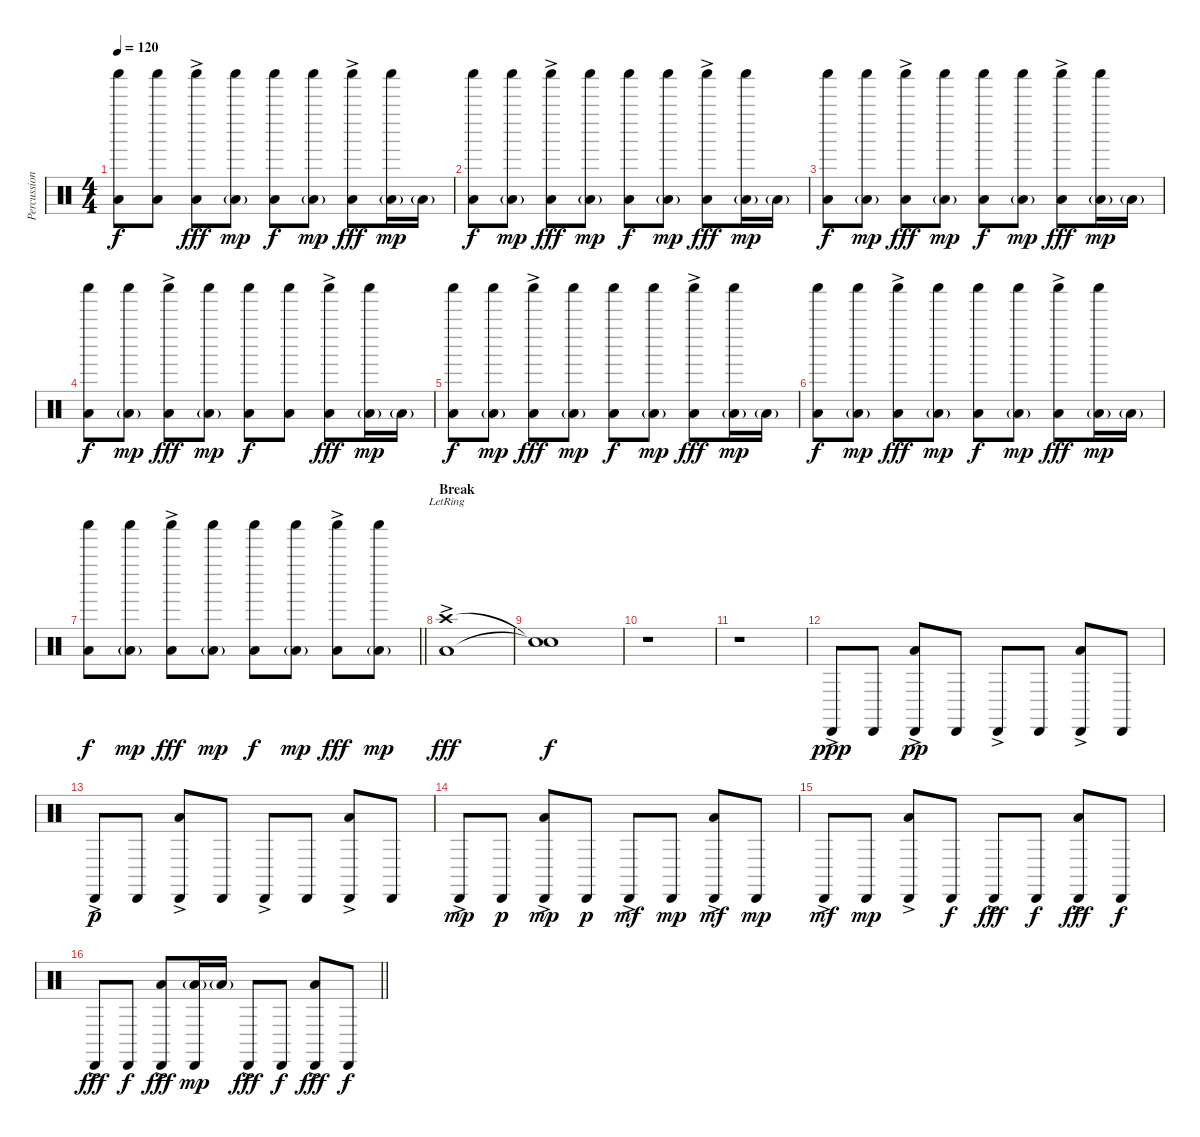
\track ("Percussion" "Percussion") {instrument percussion}
\staff {score}
\articulation defaults
\ts (4 4)
\tempo 120
\clef neutral
\ks c
("Shaker (hit)" "Low Tom (hit)").8{dy f} ("Shaker (hit)" "Low Tom (hit)").8 ("Shaker (hit)" "Low Tom (hit)"{ac}).8{dy fff} ("Shaker (hit)" "Low Tom (hit)"{g}).8{dy mp} ("Shaker (hit)" "Low Tom (hit)").8{dy f} ("Shaker (hit)" "Low Tom (hit)"{g}).8{dy mp} ("Shaker (hit)" "Low Tom (hit)"{ac}).8{dy fff} ("Shaker (hit)" "Low Tom (hit)"{g}).16{dy mp} "Low Tom (hit)"{g}.16 |
("Shaker (hit)" "Low Tom (hit)").8{dy f} ("Shaker (hit)" "Low Tom (hit)"{g}).8{dy mp} ("Shaker (hit)" "Low Tom (hit)"{ac}).8{dy fff} ("Shaker (hit)" "Low Tom (hit)"{g}).8{dy mp} ("Shaker (hit)" "Low Tom (hit)").8{dy f} ("Shaker (hit)" "Low Tom (hit)"{g}).8{dy mp} ("Shaker (hit)" "Low Tom (hit)"{ac}).8{dy fff} ("Shaker (hit)" "Low Tom (hit)"{g}).16{dy mp} "Low Tom (hit)"{g}.16 |
("Shaker (hit)" "Low Tom (hit)").8{dy f} ("Shaker (hit)" "Low Tom (hit)"{g}).8{dy mp} ("Shaker (hit)" "Low Tom (hit)"{ac}).8{dy fff} ("Shaker (hit)" "Low Tom (hit)"{g}).8{dy mp} ("Shaker (hit)" "Low Tom (hit)").8{dy f} ("Shaker (hit)" "Low Tom (hit)"{g}).8{dy mp} ("Shaker (hit)" "Low Tom (hit)"{ac}).8{dy fff} ("Shaker (hit)" "Low Tom (hit)"{g}).16{dy mp} "Low Tom (hit)"{g}.16 |
("Shaker (hit)" "Low Tom (hit)").8{dy f} ("Shaker (hit)" "Low Tom (hit)"{g}).8{dy mp} ("Shaker (hit)" "Low Tom (hit)"{ac}).8{dy fff} ("Shaker (hit)" "Low Tom (hit)"{g}).8{dy mp} ("Shaker (hit)" "Low Tom (hit)").8{dy f} ("Shaker (hit)" "Low Tom (hit)").8 ("Shaker (hit)" "Low Tom (hit)"{ac}).8{dy fff} ("Shaker (hit)" "Low Tom (hit)"{g}).16{dy mp} "Low Tom (hit)"{g}.16 |
("Shaker (hit)" "Low Tom (hit)").8{dy f} ("Shaker (hit)" "Low Tom (hit)"{g}).8{dy mp} ("Shaker (hit)" "Low Tom (hit)"{ac}).8{dy fff} ("Shaker (hit)" "Low Tom (hit)"{g}).8{dy mp} ("Shaker (hit)" "Low Tom (hit)").8{dy f} ("Shaker (hit)" "Low Tom (hit)"{g}).8{dy mp} ("Shaker (hit)" "Low Tom (hit)"{ac}).8{dy fff} ("Shaker (hit)" "Low Tom (hit)"{g}).16{dy mp} "Low Tom (hit)"{g}.16 |
("Shaker (hit)" "Low Tom (hit)").8{dy f} ("Shaker (hit)" "Low Tom (hit)"{g}).8{dy mp} ("Shaker (hit)" "Low Tom (hit)"{ac}).8{dy fff} ("Shaker (hit)" "Low Tom (hit)"{g}).8{dy mp} ("Shaker (hit)" "Low Tom (hit)").8{dy f} ("Shaker (hit)" "Low Tom (hit)"{g}).8{dy mp} ("Shaker (hit)" "Low Tom (hit)"{ac}).8{dy fff} ("Shaker (hit)" "Low Tom (hit)"{g}).16{dy mp} "Low Tom (hit)"{g}.16 |
\barLineRight lightlight
("Shaker (hit)" "Low Tom (hit)").8{dy f} ("Shaker (hit)" "Low Tom (hit)"{g}).8{dy mp} ("Shaker (hit)" "Low Tom (hit)"{ac}).8{dy fff} ("Shaker (hit)" "Low Tom (hit)"{g}).8{dy mp} ("Shaker (hit)" "Low Tom (hit)").8{dy f} ("Shaker (hit)" "Low Tom (hit)"{g}).8{dy mp} ("Shaker (hit)" "Low Tom (hit)"{ac}).8{dy fff} ("Shaker (hit)" "Low Tom (hit)"{g}).8{dy mp} |
\section ("" "Break")
("Crash high (hit)"{ac lr} "Low Tom (hit)").1{dy fff} |
("Snare (hit)"{t} "Snare (hit)"{t}).1{dy f} |
r.1 |
r.1 |
"Cabasa (hit)"{ac}.8{dy ppp} "Cabasa (hit)".8 ("Cabasa (hit)"{ac} "Low Tom (hit)").8{dy pp} "Cabasa (hit)".8 "Cabasa (hit)"{ac}.8 "Cabasa (hit)".8 ("Cabasa (hit)"{ac} "Low Tom (hit)").8 "Cabasa (hit)".8 |
"Cabasa (hit)"{ac}.8{dy p} "Cabasa (hit)".8 ("Cabasa (hit)"{ac} "Low Tom (hit)").8 "Cabasa (hit)".8 "Cabasa (hit)"{ac}.8 "Cabasa (hit)".8 ("Cabasa (hit)"{ac} "Low Tom (hit)").8 "Cabasa (hit)".8 |
"Cabasa (hit)"{ac}.8{dy mp} "Cabasa (hit)".8{dy p} ("Cabasa (hit)"{ac} "Low Tom (hit)").8{dy mp} "Cabasa (hit)".8{dy p} "Cabasa (hit)"{ac}.8{dy mf} "Cabasa (hit)".8{dy mp} ("Cabasa (hit)"{ac} "Low Tom (hit)").8{dy mf} "Cabasa (hit)".8{dy mp} |
"Cabasa (hit)"{ac}.8{dy mf volume 10} "Cabasa (hit)".8{dy mp} ("Cabasa (hit)"{ac} "Low Tom (hit)").8 "Cabasa (hit)".8{dy f} "Cabasa (hit)"{ac}.8{dy fff} "Cabasa (hit)".8{dy f} ("Cabasa (hit)"{ac} "Low Tom (hit)").8{dy fff} "Cabasa (hit)".8{dy f} |
\barLineRight lightlight "Cabasa (hit)"{ac}.8{dy fff} "Cabasa (hit)".8{dy f}
("Cabasa (hit)"{ac} "Low Tom (hit)").8{dy fff} ("Cabasa (hit)" "Low Tom (hit)"{g}).16{dy mp} "Low Tom (hit)"{g}.16 "Cabasa (hit)"{ac}.8{dy fff} "Cabasa (hit)".8{dy f} ("Cabasa (hit)"{ac} "Low Tom (hit)").8{dy fff} "Cabasa (hit)".8{dy f}
